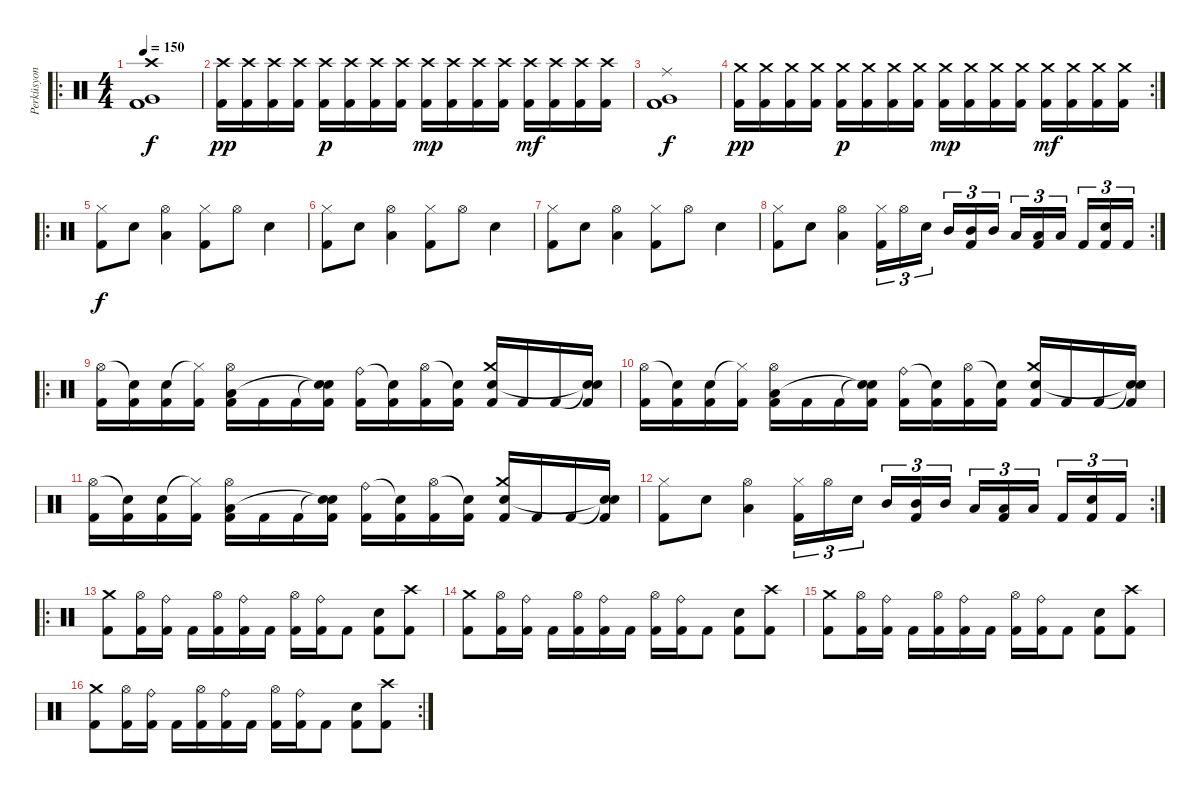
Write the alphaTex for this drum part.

\track ("Perküsyon" "Perküsyon") {instrument percussion}
\staff {score}
\articulation defaults
\ro
\ts (4 4)
\tempo 150
\clef neutral
\ks c
("Crash high (hit)" "Kick (hit) 2" "Very Low Tom (hit)" "Kick (hit) 2").1{dy f} |
("Kick (hit) 2" "Crash high (hit)").16{dy pp} ("Kick (hit) 2" "Crash high (hit)").16 ("Kick (hit) 2" "Crash high (hit)").16 ("Kick (hit) 2" "Crash high (hit)").16 ("Kick (hit) 2" "Crash high (hit)").16{dy p} ("Kick (hit) 2" "Crash high (hit)").16 ("Kick (hit) 2" "Crash high (hit)").16 ("Kick (hit) 2" "Crash high (hit)").16 ("Kick (hit) 2" "Crash high (hit)").16{dy mp} ("Kick (hit) 2" "Crash high (hit)").16 ("Kick (hit) 2" "Crash high (hit)").16 ("Kick (hit) 2" "Crash high (hit)").16 ("Kick (hit) 2" "Crash high (hit)").16{dy mf} ("Kick (hit) 2" "Crash high (hit)").16 ("Kick (hit) 2" "Crash high (hit)").16 ("Kick (hit) 2" "Crash high (hit)").16 |
("Ride (middle)" "Kick (hit) 2" "Very Low Tom (hit)" "Kick (hit) 2").1{dy f} |
\rc 2
("Kick (hit) 2" "Crash medium (hit)").16{dy pp} ("Kick (hit) 2" "Crash medium (hit)").16 ("Kick (hit) 2" "Crash medium (hit)").16 ("Kick (hit) 2" "Crash medium (hit)").16 ("Kick (hit) 2" "Crash medium (hit)").16{dy p} ("Kick (hit) 2" "Crash medium (hit)").16 ("Kick (hit) 2" "Crash medium (hit)").16 ("Kick (hit) 2" "Crash medium (hit)").16 ("Kick (hit) 2" "Crash medium (hit)").16{dy mp} ("Kick (hit) 2" "Crash medium (hit)").16 ("Kick (hit) 2" "Crash medium (hit)").16 ("Kick (hit) 2" "Crash medium (hit)").16 ("Kick (hit) 2" "Crash medium (hit)").16{dy mf} ("Kick (hit) 2" "Crash medium (hit)").16 ("Kick (hit) 2" "Crash medium (hit)").16 ("Kick (hit) 2" "Crash medium (hit)").16 |
\ro
("Hi-Hat (closed)" "Kick (hit) 2").8{dy f} "Snare (hit) 2".8 ("Low Tom (hit)" "Hi-Hat (open)").4 ("Kick (hit) 2" "Hi-Hat (closed)").8 "Hi-Hat (open)".8 "Snare (hit) 2".4 |
("Hi-Hat (closed)" "Kick (hit) 2").8 "Snare (hit) 2".8 ("Low Tom (hit)" "Hi-Hat (open)").4 ("Kick (hit) 2" "Hi-Hat (closed)").8 "Hi-Hat (open)".8 "Snare (hit) 2".4 |
("Hi-Hat (closed)" "Kick (hit) 2").8 "Snare (hit) 2".8 ("Low Tom (hit)" "Hi-Hat (open)").4 ("Kick (hit) 2" "Hi-Hat (closed)").8 "Hi-Hat (open)".8 "Snare (hit) 2".4 |
\rc 2
("Hi-Hat (closed)" "Kick (hit) 2").8 "Snare (hit) 2".8 ("Low Tom (hit)" "Hi-Hat (open)").4 ("Kick (hit) 2" "Hi-Hat (closed)").16{tu (3 2)} "Hi-Hat (open)".16{tu (3 2)} "Snare (hit) 2".16{tu (3 2)} "Mid Tom (hit)".16{tu (3 2)} ("Mid Tom (hit)" "Kick (hit) 2").16{tu (3 2)} "Mid Tom (hit)".16{tu (3 2)} "Low Tom (hit)".16{tu (3 2)} ("Low Tom (hit)" "Kick (hit) 2").16{tu (3 2)} "Low Tom (hit)".16{tu (3 2)} "Kick (hit) 2".16{tu (3 2)} ("Kick (hit) 2" "Snare (hit) 2").16{tu (3 2)} "Kick (hit) 2".16{tu (3 2)} |
\ro
("Hi-Hat (open)" "Kick (hit) 2").16 ("Snare (hit)"{t} "Kick (hit) 2").16 ("Snare (hit) 2" "Kick (hit) 2").16 ("Hi-Hat (closed)"{t} "Kick (hit) 2").16 ("Hi-Hat (open)" "Low Tom (hit)" "Kick (hit) 2").16 "Kick (hit) 2".16 "Kick (hit) 2".16 ("Snare (hit)"{t} "Snare (hit)"{t} "Kick (hit) 2").16 ("Ride (bell)" "Kick (hit) 2").16 ("Snare (hit)"{t} "Kick (hit) 2").16 ("Hi-Hat (open)" "Kick (hit) 2").16 ("Snare (hit)"{t} "Kick (hit) 2").16 ("Crash medium (hit)" "Snare (hit) 2" "Kick (hit) 2").16 "Kick (hit) 2".16 "Kick (hit) 2".16 ("Snare (hit)"{t} "Snare (hit)"{t} "Kick (hit) 2").16 |
("Hi-Hat (open)" "Kick (hit) 2").16 ("Snare (hit)"{t} "Kick (hit) 2").16 ("Snare (hit) 2" "Kick (hit) 2").16 ("Hi-Hat (closed)"{t} "Kick (hit) 2").16 ("Hi-Hat (open)" "Low Tom (hit)" "Kick (hit) 2").16 "Kick (hit) 2".16 "Kick (hit) 2".16 ("Snare (hit)"{t} "Snare (hit)"{t} "Kick (hit) 2").16 ("Ride (bell)" "Kick (hit) 2").16 ("Snare (hit)"{t} "Kick (hit) 2").16 ("Hi-Hat (open)" "Kick (hit) 2").16 ("Snare (hit)"{t} "Kick (hit) 2").16 ("Crash medium (hit)" "Snare (hit) 2" "Kick (hit) 2").16 "Kick (hit) 2".16 "Kick (hit) 2".16 ("Snare (hit)"{t} "Snare (hit)"{t} "Kick (hit) 2").16 |
("Hi-Hat (open)" "Kick (hit) 2").16 ("Snare (hit)"{t} "Kick (hit) 2").16 ("Snare (hit) 2" "Kick (hit) 2").16 ("Hi-Hat (closed)"{t} "Kick (hit) 2").16 ("Hi-Hat (open)" "Low Tom (hit)" "Kick (hit) 2").16 "Kick (hit) 2".16 "Kick (hit) 2".16 ("Snare (hit)"{t} "Snare (hit)"{t} "Kick (hit) 2").16 ("Ride (bell)" "Kick (hit) 2").16 ("Snare (hit)"{t} "Kick (hit) 2").16 ("Hi-Hat (open)" "Kick (hit) 2").16 ("Snare (hit)"{t} "Kick (hit) 2").16 ("Crash medium (hit)" "Snare (hit) 2" "Kick (hit) 2").16 "Kick (hit) 2".16 "Kick (hit) 2".16 ("Snare (hit)"{t} "Snare (hit)"{t} "Kick (hit) 2").16 |
\rc 2
("Hi-Hat (closed)" "Kick (hit) 2").8 "Snare (hit) 2".8 ("Low Tom (hit)" "Hi-Hat (open)").4 ("Kick (hit) 2" "Hi-Hat (closed)").16{tu (3 2)} "Hi-Hat (open)".16{tu (3 2)} "Snare (hit) 2".16{tu (3 2)} "Mid Tom (hit)".16{tu (3 2)} ("Mid Tom (hit)" "Kick (hit) 2").16{tu (3 2)} "Mid Tom (hit)".16{tu (3 2)} "Low Tom (hit)".16{tu (3 2)} ("Low Tom (hit)" "Kick (hit) 2").16{tu (3 2)} "Low Tom (hit)".16{tu (3 2)} "Kick (hit) 2".16{tu (3 2)} ("Kick (hit) 2" "Snare (hit) 2").16{tu (3 2)} "Kick (hit) 2".16{tu (3 2)} |
\ro
("Crash medium (hit)" "Kick (hit) 2").8 ("Hi-Hat (open)" "Kick (hit) 2").16 ("Ride (bell)" "Kick (hit) 2").16 "Kick (hit) 2".16 ("Hi-Hat (open)" "Kick (hit) 2").16 ("Ride (bell)" "Kick (hit) 2").16 "Kick (hit) 2".16 ("Hi-Hat (open)" "Kick (hit) 2").16 ("Ride (bell)" "Kick (hit) 2").16 "Kick (hit) 2".8 ("Snare (hit) 2" "Kick (hit) 2").8 ("Crash high (hit)" "Kick (hit) 2").8 |
("Crash medium (hit)" "Kick (hit) 2").8 ("Hi-Hat (open)" "Kick (hit) 2").16 ("Ride (bell)" "Kick (hit) 2").16 "Kick (hit) 2".16 ("Hi-Hat (open)" "Kick (hit) 2").16 ("Ride (bell)" "Kick (hit) 2").16 "Kick (hit) 2".16 ("Hi-Hat (open)" "Kick (hit) 2").16 ("Ride (bell)" "Kick (hit) 2").16 "Kick (hit) 2".8 ("Snare (hit) 2" "Kick (hit) 2").8 ("Crash high (hit)" "Kick (hit) 2").8 |
("Crash medium (hit)" "Kick (hit) 2").8 ("Hi-Hat (open)" "Kick (hit) 2").16 ("Ride (bell)" "Kick (hit) 2").16 "Kick (hit) 2".16 ("Hi-Hat (open)" "Kick (hit) 2").16 ("Ride (bell)" "Kick (hit) 2").16 "Kick (hit) 2".16 ("Hi-Hat (open)" "Kick (hit) 2").16 ("Ride (bell)" "Kick (hit) 2").16 "Kick (hit) 2".8 ("Snare (hit) 2" "Kick (hit) 2").8 ("Crash high (hit)" "Kick (hit) 2").8 |
\rc 2
("Crash medium (hit)" "Kick (hit) 2").8 ("Hi-Hat (open)" "Kick (hit) 2").16 ("Ride (bell)" "Kick (hit) 2").16 "Kick (hit) 2".16 ("Hi-Hat (open)" "Kick (hit) 2").16 ("Ride (bell)" "Kick (hit) 2").16 "Kick (hit) 2".16 ("Hi-Hat (open)" "Kick (hit) 2").16 ("Ride (bell)" "Kick (hit) 2").16 "Kick (hit) 2".8 ("Snare (hit) 2" "Kick (hit) 2").8 ("Crash high (hit)" "Kick (hit) 2").8
